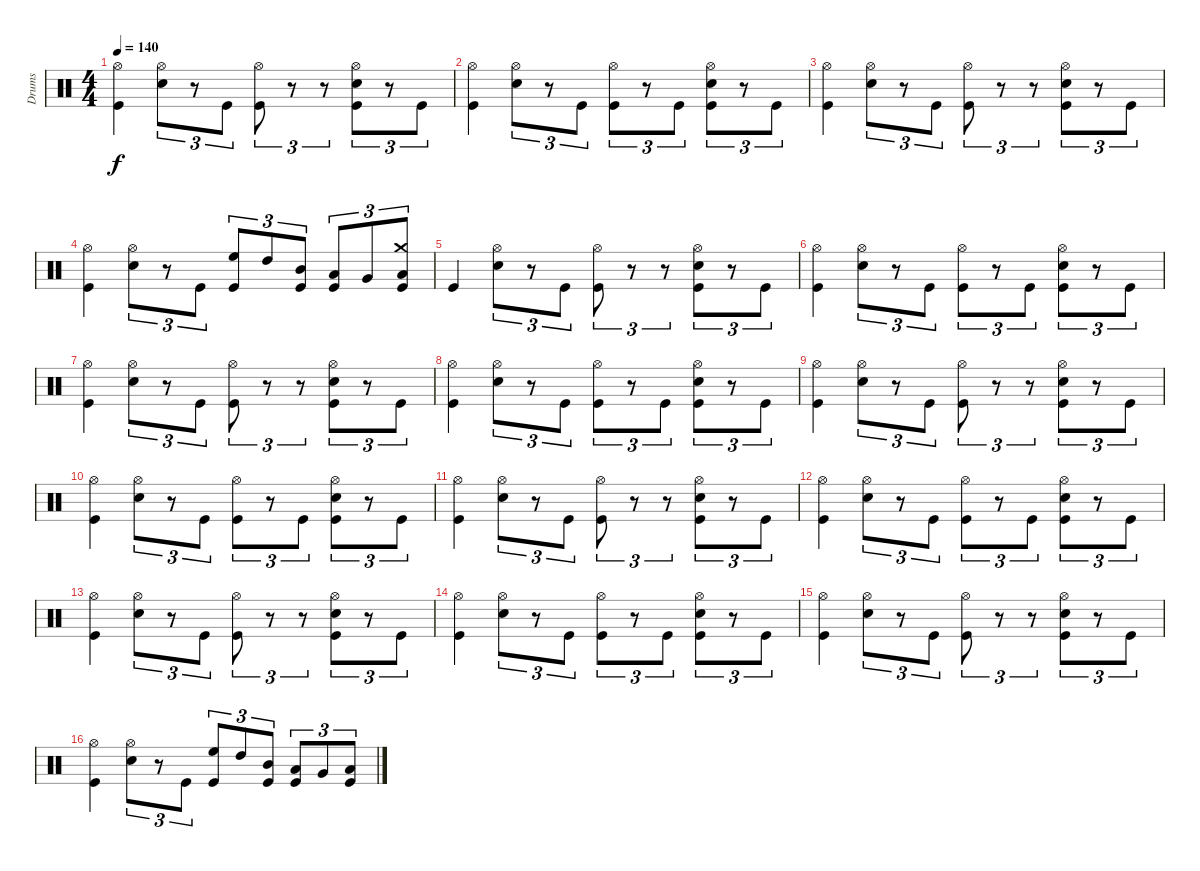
\track ("Drums" "Drums") {instrument percussion}
\staff {score}
\articulation defaults
\ts (4 4)
\tempo 140
\clef neutral
\ks c
("Hi-Hat (open)" "Kick (hit)").4{dy f} ("Hi-Hat (open)" "Electric Snare (hit)").8{tu (3 2)} r.8{tu (3 2)} "Kick (hit)".8{tu (3 2)} ("Hi-Hat (open)" "Kick (hit)").8{tu (3 2)} r.8{tu (3 2)} r.8{tu (3 2)} ("Hi-Hat (open)" "Kick (hit)" "Electric Snare (hit)").8{tu (3 2)} r.8{tu (3 2)} "Kick (hit)".8{tu (3 2)} |
("Hi-Hat (open)" "Kick (hit)").4 ("Hi-Hat (open)" "Electric Snare (hit)").8{tu (3 2)} r.8{tu (3 2)} "Kick (hit)".8{tu (3 2)} ("Hi-Hat (open)" "Kick (hit)").8{tu (3 2)} r.8{tu (3 2)} "Kick (hit)".8{tu (3 2)} ("Hi-Hat (open)" "Kick (hit)" "Electric Snare (hit)").8{tu (3 2)} r.8{tu (3 2)} "Kick (hit)".8{tu (3 2)} |
("Hi-Hat (open)" "Kick (hit)").4 ("Hi-Hat (open)" "Electric Snare (hit)").8{tu (3 2)} r.8{tu (3 2)} "Kick (hit)".8{tu (3 2)} ("Hi-Hat (open)" "Kick (hit)").8{tu (3 2)} r.8{tu (3 2)} r.8{tu (3 2)} ("Hi-Hat (open)" "Kick (hit)" "Electric Snare (hit)").8{tu (3 2)} r.8{tu (3 2)} "Kick (hit)".8{tu (3 2)} |
("Hi-Hat (open)" "Kick (hit)").4 ("Hi-Hat (open)" "Electric Snare (hit)").8{tu (3 2)} r.8{tu (3 2)} "Kick (hit)".8{tu (3 2)} ("Kick (hit)" "High Floor Tom (hit)").8{tu (3 2)} "High Tom (hit)".8{tu (3 2)} ("Kick (hit)" "Mid Tom (hit)").8{tu (3 2)} ("Kick (hit)" "Low Tom (hit)").8{tu (3 2)} "Very Low Tom (hit)".8{tu (3 2)} ("Crash medium (hit)" "Kick (hit)" "Low Floor Tom (hit)").8{tu (3 2)} |
"Kick (hit)".4 ("Hi-Hat (open)" "Electric Snare (hit)").8{tu (3 2)} r.8{tu (3 2)} "Kick (hit)".8{tu (3 2)} ("Hi-Hat (open)" "Kick (hit)").8{tu (3 2)} r.8{tu (3 2)} r.8{tu (3 2)} ("Hi-Hat (open)" "Kick (hit)" "Electric Snare (hit)").8{tu (3 2)} r.8{tu (3 2)} "Kick (hit)".8{tu (3 2)} |
("Hi-Hat (open)" "Kick (hit)").4 ("Hi-Hat (open)" "Electric Snare (hit)").8{tu (3 2)} r.8{tu (3 2)} "Kick (hit)".8{tu (3 2)} ("Hi-Hat (open)" "Kick (hit)").8{tu (3 2)} r.8{tu (3 2)} "Kick (hit)".8{tu (3 2)} ("Hi-Hat (open)" "Kick (hit)" "Electric Snare (hit)").8{tu (3 2)} r.8{tu (3 2)} "Kick (hit)".8{tu (3 2)} |
("Hi-Hat (open)" "Kick (hit)").4 ("Hi-Hat (open)" "Electric Snare (hit)").8{tu (3 2)} r.8{tu (3 2)} "Kick (hit)".8{tu (3 2)} ("Hi-Hat (open)" "Kick (hit)").8{tu (3 2)} r.8{tu (3 2)} r.8{tu (3 2)} ("Hi-Hat (open)" "Kick (hit)" "Electric Snare (hit)").8{tu (3 2)} r.8{tu (3 2)} "Kick (hit)".8{tu (3 2)} |
("Hi-Hat (open)" "Kick (hit)").4 ("Hi-Hat (open)" "Electric Snare (hit)").8{tu (3 2)} r.8{tu (3 2)} "Kick (hit)".8{tu (3 2)} ("Hi-Hat (open)" "Kick (hit)").8{tu (3 2)} r.8{tu (3 2)} "Kick (hit)".8{tu (3 2)} ("Hi-Hat (open)" "Kick (hit)" "Electric Snare (hit)").8{tu (3 2)} r.8{tu (3 2)} "Kick (hit)".8{tu (3 2)} |
("Hi-Hat (open)" "Kick (hit)").4 ("Hi-Hat (open)" "Electric Snare (hit)").8{tu (3 2)} r.8{tu (3 2)} "Kick (hit)".8{tu (3 2)} ("Hi-Hat (open)" "Kick (hit)").8{tu (3 2)} r.8{tu (3 2)} r.8{tu (3 2)} ("Hi-Hat (open)" "Kick (hit)" "Electric Snare (hit)").8{tu (3 2)} r.8{tu (3 2)} "Kick (hit)".8{tu (3 2)} |
("Hi-Hat (open)" "Kick (hit)").4 ("Hi-Hat (open)" "Electric Snare (hit)").8{tu (3 2)} r.8{tu (3 2)} "Kick (hit)".8{tu (3 2)} ("Hi-Hat (open)" "Kick (hit)").8{tu (3 2)} r.8{tu (3 2)} "Kick (hit)".8{tu (3 2)} ("Hi-Hat (open)" "Kick (hit)" "Electric Snare (hit)").8{tu (3 2)} r.8{tu (3 2)} "Kick (hit)".8{tu (3 2)} |
("Hi-Hat (open)" "Kick (hit)").4 ("Hi-Hat (open)" "Electric Snare (hit)").8{tu (3 2)} r.8{tu (3 2)} "Kick (hit)".8{tu (3 2)} ("Hi-Hat (open)" "Kick (hit)").8{tu (3 2)} r.8{tu (3 2)} r.8{tu (3 2)} ("Hi-Hat (open)" "Kick (hit)" "Electric Snare (hit)").8{tu (3 2)} r.8{tu (3 2)} "Kick (hit)".8{tu (3 2)} |
("Hi-Hat (open)" "Kick (hit)").4 ("Hi-Hat (open)" "Electric Snare (hit)").8{tu (3 2)} r.8{tu (3 2)} "Kick (hit)".8{tu (3 2)} ("Hi-Hat (open)" "Kick (hit)").8{tu (3 2)} r.8{tu (3 2)} "Kick (hit)".8{tu (3 2)} ("Hi-Hat (open)" "Kick (hit)" "Electric Snare (hit)").8{tu (3 2)} r.8{tu (3 2)} "Kick (hit)".8{tu (3 2)} |
("Hi-Hat (open)" "Kick (hit)").4 ("Hi-Hat (open)" "Electric Snare (hit)").8{tu (3 2)} r.8{tu (3 2)} "Kick (hit)".8{tu (3 2)} ("Hi-Hat (open)" "Kick (hit)").8{tu (3 2)} r.8{tu (3 2)} r.8{tu (3 2)} ("Hi-Hat (open)" "Kick (hit)" "Electric Snare (hit)").8{tu (3 2)} r.8{tu (3 2)} "Kick (hit)".8{tu (3 2)} |
("Hi-Hat (open)" "Kick (hit)").4 ("Hi-Hat (open)" "Electric Snare (hit)").8{tu (3 2)} r.8{tu (3 2)} "Kick (hit)".8{tu (3 2)} ("Hi-Hat (open)" "Kick (hit)").8{tu (3 2)} r.8{tu (3 2)} "Kick (hit)".8{tu (3 2)} ("Hi-Hat (open)" "Kick (hit)" "Electric Snare (hit)").8{tu (3 2)} r.8{tu (3 2)} "Kick (hit)".8{tu (3 2)} |
("Hi-Hat (open)" "Kick (hit)").4 ("Hi-Hat (open)" "Electric Snare (hit)").8{tu (3 2)} r.8{tu (3 2)} "Kick (hit)".8{tu (3 2)} ("Hi-Hat (open)" "Kick (hit)").8{tu (3 2)} r.8{tu (3 2)} r.8{tu (3 2)} ("Hi-Hat (open)" "Kick (hit)" "Electric Snare (hit)").8{tu (3 2)} r.8{tu (3 2)} "Kick (hit)".8{tu (3 2)} |
("Hi-Hat (open)" "Kick (hit)").4 ("Hi-Hat (open)" "Electric Snare (hit)").8{tu (3 2)} r.8{tu (3 2)} "Kick (hit)".8{tu (3 2)} ("Kick (hit)" "High Floor Tom (hit)").8{tu (3 2)} "High Tom (hit)".8{tu (3 2)} ("Kick (hit)" "Mid Tom (hit)").8{tu (3 2)} ("Kick (hit)" "Low Tom (hit)").8{tu (3 2)} "Very Low Tom (hit)".8{tu (3 2)} ("Kick (hit)" "Low Floor Tom (hit)").8{tu (3 2)}
